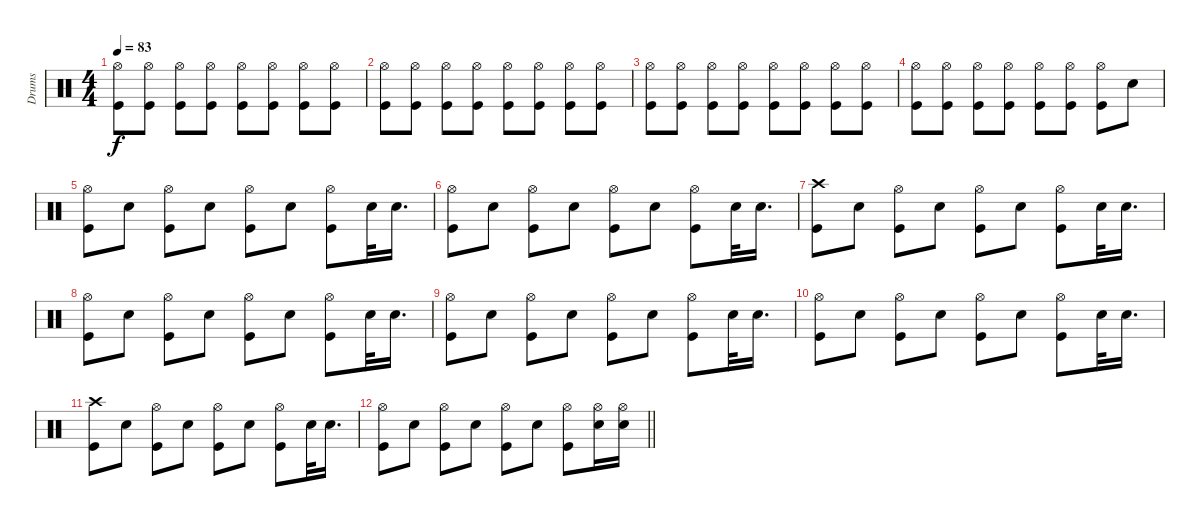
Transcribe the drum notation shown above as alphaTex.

\track ("Drums" "Drums") {instrument percussion}
\staff {score}
\articulation defaults
\ts (4 4)
\tempo 83
\clef neutral
\ks c
("Hi-Hat (open)" "Kick (hit)").8{dy f volume 2} ("Hi-Hat (open)" "Kick (hit)").8 ("Hi-Hat (open)" "Kick (hit)").8 ("Hi-Hat (open)" "Kick (hit)").8 ("Hi-Hat (open)" "Kick (hit)").8 ("Hi-Hat (open)" "Kick (hit)").8 ("Hi-Hat (open)" "Kick (hit)").8 ("Hi-Hat (open)" "Kick (hit)").8 |
("Hi-Hat (open)" "Kick (hit)").8{volume 6} ("Hi-Hat (open)" "Kick (hit)").8 ("Hi-Hat (open)" "Kick (hit)").8 ("Hi-Hat (open)" "Kick (hit)").8 ("Hi-Hat (open)" "Kick (hit)").8 ("Hi-Hat (open)" "Kick (hit)").8 ("Hi-Hat (open)" "Kick (hit)").8 ("Hi-Hat (open)" "Kick (hit)").8 |
("Hi-Hat (open)" "Kick (hit)").8{volume 10} ("Hi-Hat (open)" "Kick (hit)").8 ("Hi-Hat (open)" "Kick (hit)").8 ("Hi-Hat (open)" "Kick (hit)").8 ("Hi-Hat (open)" "Kick (hit)").8 ("Hi-Hat (open)" "Kick (hit)").8 ("Hi-Hat (open)" "Kick (hit)").8 ("Hi-Hat (open)" "Kick (hit)").8 |
("Hi-Hat (open)" "Kick (hit)").8{volume 13} ("Hi-Hat (open)" "Kick (hit)").8 ("Hi-Hat (open)" "Kick (hit)").8 ("Hi-Hat (open)" "Kick (hit)").8 ("Hi-Hat (open)" "Kick (hit)").8 ("Hi-Hat (open)" "Kick (hit)").8 ("Hi-Hat (open)" "Kick (hit)").8 "Electric Snare (hit)".8 |
("Hi-Hat (open)" "Kick (hit)").8 "Electric Snare (hit)".8 ("Hi-Hat (open)" "Kick (hit)").8 "Electric Snare (hit)".8 ("Hi-Hat (open)" "Kick (hit)").8 "Electric Snare (hit)".8 ("Hi-Hat (open)" "Kick (hit)").8 "Electric Snare (hit)".32 "Electric Snare (hit)".16{d} |
("Hi-Hat (open)" "Kick (hit)").8 "Electric Snare (hit)".8 ("Hi-Hat (open)" "Kick (hit)").8 "Electric Snare (hit)".8 ("Hi-Hat (open)" "Kick (hit)").8 "Electric Snare (hit)".8 ("Hi-Hat (open)" "Kick (hit)").8 "Electric Snare (hit)".32 "Electric Snare (hit)".16{d} |
("Crash high (hit)" "Kick (hit)").8 "Electric Snare (hit)".8 ("Hi-Hat (open)" "Kick (hit)").8 "Electric Snare (hit)".8 ("Hi-Hat (open)" "Kick (hit)").8 "Electric Snare (hit)".8 ("Hi-Hat (open)" "Kick (hit)").8 "Electric Snare (hit)".32 "Electric Snare (hit)".16{d} |
("Hi-Hat (open)" "Kick (hit)").8 "Electric Snare (hit)".8 ("Hi-Hat (open)" "Kick (hit)").8 "Electric Snare (hit)".8 ("Hi-Hat (open)" "Kick (hit)").8 "Electric Snare (hit)".8 ("Hi-Hat (open)" "Kick (hit)").8 "Electric Snare (hit)".32 "Electric Snare (hit)".16{d} |
("Hi-Hat (open)" "Kick (hit)").8 "Electric Snare (hit)".8 ("Hi-Hat (open)" "Kick (hit)").8 "Electric Snare (hit)".8 ("Hi-Hat (open)" "Kick (hit)").8 "Electric Snare (hit)".8 ("Hi-Hat (open)" "Kick (hit)").8 "Electric Snare (hit)".32 "Electric Snare (hit)".16{d} |
("Hi-Hat (open)" "Kick (hit)").8 "Electric Snare (hit)".8 ("Hi-Hat (open)" "Kick (hit)").8 "Electric Snare (hit)".8 ("Hi-Hat (open)" "Kick (hit)").8 "Electric Snare (hit)".8 ("Hi-Hat (open)" "Kick (hit)").8 "Electric Snare (hit)".32 "Electric Snare (hit)".16{d} |
("Crash high (hit)" "Kick (hit)").8 "Electric Snare (hit)".8 ("Hi-Hat (open)" "Kick (hit)").8 "Electric Snare (hit)".8 ("Hi-Hat (open)" "Kick (hit)").8 "Electric Snare (hit)".8 ("Hi-Hat (open)" "Kick (hit)").8 "Electric Snare (hit)".32 "Electric Snare (hit)".16{d} |
\barLineRight lightlight
("Hi-Hat (open)" "Kick (hit)").8 "Electric Snare (hit)".8 ("Hi-Hat (open)" "Kick (hit)").8 "Electric Snare (hit)".8 ("Hi-Hat (open)" "Kick (hit)").8 "Electric Snare (hit)".8 ("Hi-Hat (open)" "Kick (hit)").8 ("Hi-Hat (open)" "Electric Snare (hit)").16 ("Hi-Hat (open)" "Electric Snare (hit)").16
